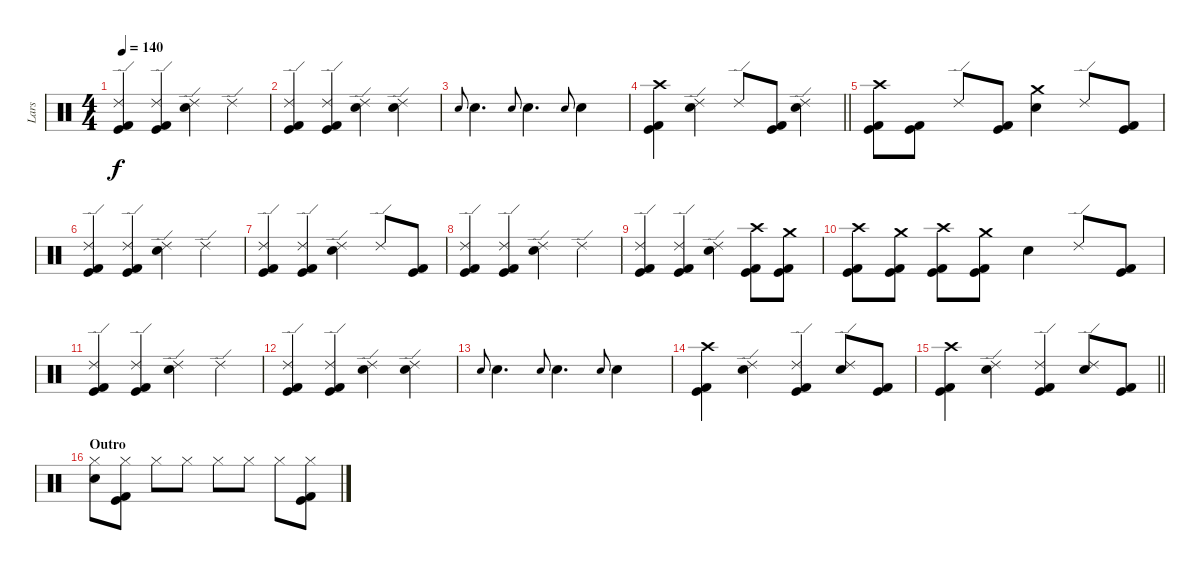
\track ("Lars" "Lars") {instrument percussion}
\staff {score}
\articulation defaults
\ts (4 4)
\tempo 140
\clef neutral
\ks c
("Ride (edge) 2" "Kick (hit)" "Kick (hit) 2").4{dy f} ("Ride (edge) 2" "Kick (hit)" "Kick (hit) 2").4 ("Ride (edge) 2" "Electric Snare (hit)").4 "Ride (edge) 2".4 |
("Ride (edge) 2" "Kick (hit)" "Kick (hit) 2").4 ("Ride (edge) 2" "Kick (hit)" "Kick (hit) 2").4 ("Ride (edge) 2" "Electric Snare (hit)").4 ("Ride (edge) 2" "Electric Snare (hit)").4 |
"Electric Snare (hit)".8{gr onbeat} "Electric Snare (hit)".4{d} "Electric Snare (hit)".8{gr onbeat} "Electric Snare (hit)".4{d} "Electric Snare (hit)".8{gr onbeat} "Electric Snare (hit)".4 |
\barLineRight lightlight
("Crash high (hit)" "Kick (hit)" "Kick (hit) 2").4 ("Ride (edge) 2" "Electric Snare (hit)").4 "Ride (edge) 2".8 ("Kick (hit)" "Kick (hit) 2").8 ("Ride (edge) 2" "Electric Snare (hit)").4 |
\section ("" "")
("Crash high (hit)" "Kick (hit)" "Kick (hit) 2").8 ("Kick (hit)" "Kick (hit) 2").8 "Ride (edge) 2".8 ("Kick (hit)" "Kick (hit) 2").8 ("Crash medium (hit)" "Electric Snare (hit)").4 "Ride (edge) 2".8 ("Kick (hit)" "Kick (hit) 2").8 |
("Ride (edge) 2" "Kick (hit)" "Kick (hit) 2").4 ("Ride (edge) 2" "Kick (hit)" "Kick (hit) 2").4 ("Ride (edge) 2" "Electric Snare (hit)").4 "Ride (edge) 2".4 |
("Ride (edge) 2" "Kick (hit)" "Kick (hit) 2").4 ("Ride (edge) 2" "Kick (hit)" "Kick (hit) 2").4 ("Ride (edge) 2" "Electric Snare (hit)").4 "Ride (edge) 2".8 ("Kick (hit)" "Kick (hit) 2").8 |
("Ride (edge) 2" "Kick (hit)" "Kick (hit) 2").4 ("Ride (edge) 2" "Kick (hit)" "Kick (hit) 2").4 ("Ride (edge) 2" "Electric Snare (hit)").4 "Ride (edge) 2".4 |
("Ride (edge) 2" "Kick (hit)" "Kick (hit) 2").4 ("Ride (edge) 2" "Kick (hit)" "Kick (hit) 2").4 ("Ride (edge) 2" "Electric Snare (hit)").4 ("Crash high (hit)" "Kick (hit)" "Kick (hit) 2").8 ("Crash medium (hit)" "Kick (hit)" "Kick (hit) 2").8 |
("Crash high (hit)" "Kick (hit)" "Kick (hit) 2").8 ("Crash medium (hit)" "Kick (hit)" "Kick (hit) 2").8 ("Crash high (hit)" "Kick (hit)" "Kick (hit) 2").8 ("Crash medium (hit)" "Kick (hit)" "Kick (hit) 2").8 "Electric Snare (hit)".4 "Ride (edge) 2".8 ("Kick (hit)" "Kick (hit) 2").8 |
("Ride (edge) 2" "Kick (hit)" "Kick (hit) 2").4 ("Ride (edge) 2" "Kick (hit)" "Kick (hit) 2").4 ("Ride (edge) 2" "Electric Snare (hit)").4 "Ride (edge) 2".4 |
("Ride (edge) 2" "Kick (hit)" "Kick (hit) 2").4 ("Ride (edge) 2" "Kick (hit)" "Kick (hit) 2").4 ("Ride (edge) 2" "Electric Snare (hit)").4 ("Ride (edge) 2" "Electric Snare (hit)").4 |
"Electric Snare (hit)".8{gr onbeat} "Electric Snare (hit)".4{d} "Electric Snare (hit)".8{gr onbeat} "Electric Snare (hit)".4{d} "Electric Snare (hit)".8{gr onbeat} "Electric Snare (hit)".4 |
("Crash high (hit)" "Kick (hit)" "Kick (hit) 2").4 ("Ride (edge) 2" "Electric Snare (hit)").4 ("Ride (edge) 2" "Kick (hit)" "Kick (hit) 2").4 ("Ride (edge) 2" "Electric Snare (hit)").8 ("Kick (hit)" "Kick (hit) 2").8 |
\barLineRight lightlight
("Crash high (hit)" "Kick (hit)" "Kick (hit) 2").4 ("Ride (edge) 2" "Electric Snare (hit)").4 ("Ride (edge) 2" "Kick (hit)" "Kick (hit) 2").4 ("Ride (edge) 2" "Electric Snare (hit)").8 ("Kick (hit)" "Kick (hit) 2").8 |
\section ("" "Outro")
("Hi-Hat (closed)" "Electric Snare (hit)").8 ("Hi-Hat (closed)" "Kick (hit)" "Kick (hit) 2").8 "Hi-Hat (closed)".8 "Hi-Hat (closed)".8 "Hi-Hat (closed)".8 "Hi-Hat (closed)".8 "Hi-Hat (closed)".8 ("Hi-Hat (closed)" "Kick (hit)" "Kick (hit) 2").8
